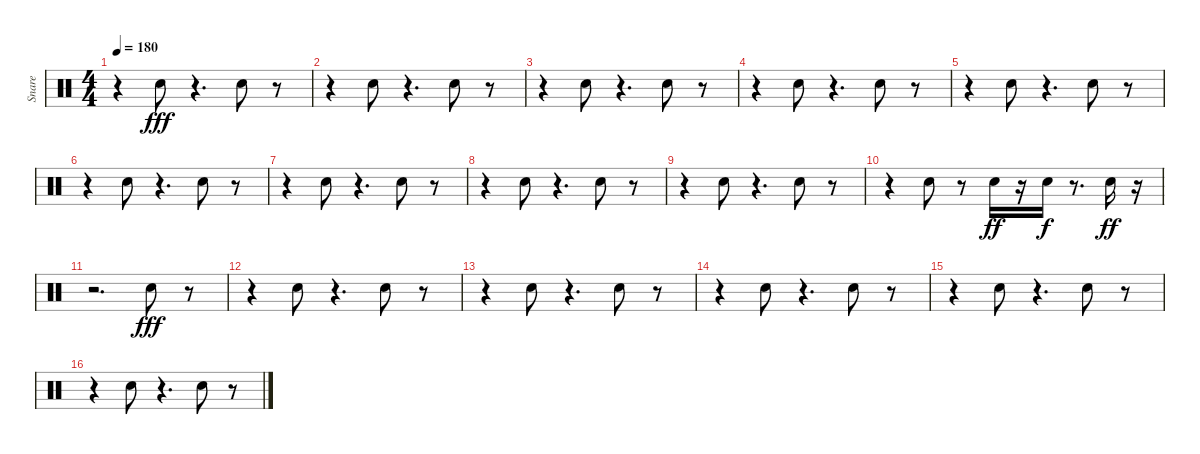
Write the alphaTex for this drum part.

\track ("Snare" "Snare") {instrument percussion}
\staff {score}
\articulation defaults
\ts (4 4)
\tempo 180
\clef neutral
\ks c
r.4{dy fff} "Electric Snare (hit)".8 r.4{d} "Electric Snare (hit)".8 r.8 |
r.4 "Electric Snare (hit)".8 r.4{d} "Electric Snare (hit)".8 r.8 |
r.4 "Electric Snare (hit)".8 r.4{d} "Electric Snare (hit)".8 r.8 |
r.4 "Electric Snare (hit)".8 r.4{d} "Electric Snare (hit)".8 r.8 |
r.4 "Electric Snare (hit)".8 r.4{d} "Electric Snare (hit)".8 r.8 |
r.4 "Electric Snare (hit)".8 r.4{d} "Electric Snare (hit)".8 r.8 |
r.4 "Electric Snare (hit)".8 r.4{d} "Electric Snare (hit)".8 r.8 |
r.4 "Electric Snare (hit)".8 r.4{d} "Electric Snare (hit)".8 r.8 |
r.4 "Electric Snare (hit)".8 r.4{d} "Electric Snare (hit)".8 r.8 |
r.4 "Electric Snare (hit)".8 r.8 "Electric Snare (hit)".16{dy ff} r.16 "Electric Snare (hit)".16{dy f} r.8{d} "Electric Snare (hit)".16{dy ff} r.16 |
r.2{d} "Electric Snare (hit)".8{dy fff} r.8 |
r.4 "Electric Snare (hit)".8 r.4{d} "Electric Snare (hit)".8 r.8 |
r.4 "Electric Snare (hit)".8 r.4{d} "Electric Snare (hit)".8 r.8 |
r.4 "Electric Snare (hit)".8 r.4{d} "Electric Snare (hit)".8 r.8 |
r.4 "Electric Snare (hit)".8 r.4{d} "Electric Snare (hit)".8 r.8 |
r.4 "Electric Snare (hit)".8 r.4{d} "Electric Snare (hit)".8 r.8
